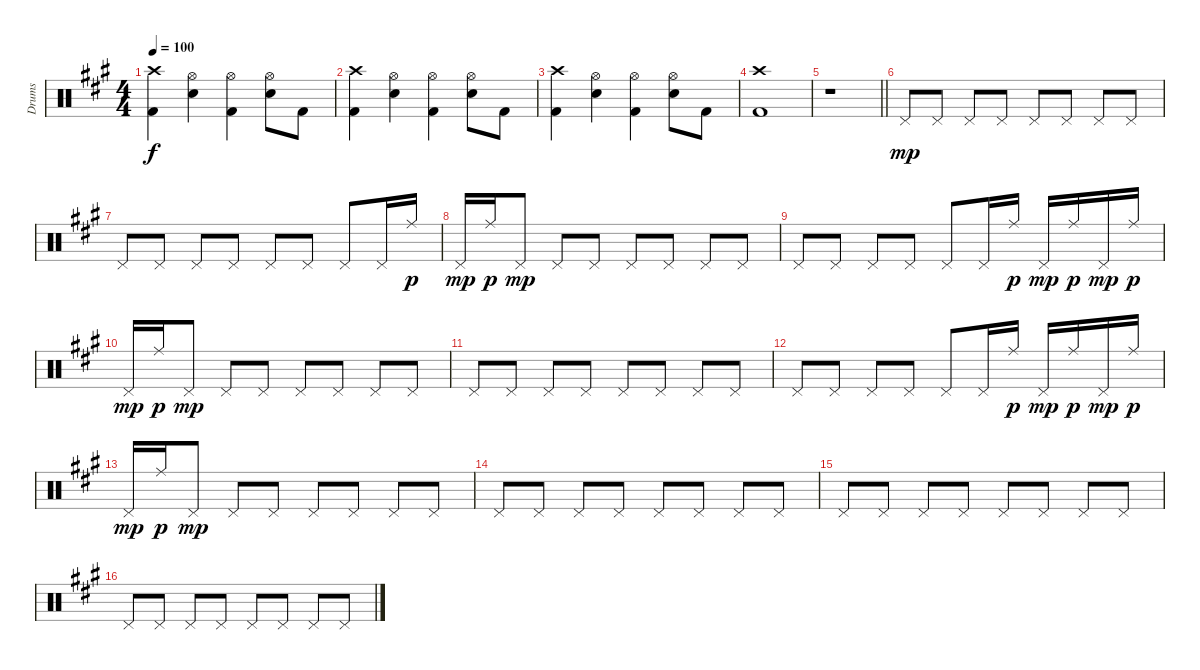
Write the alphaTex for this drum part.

\track ("Drums" "Drums") {instrument percussion}
\staff {score}
\articulation defaults
\ts (4 4)
\tempo 100
\clef neutral
\ks f#minor
("Crash high (hit)" "Kick (hit) 2").4{dy f} ("Hi-Hat (open)" "Snare (hit) 2").4 ("Hi-Hat (open)" "Kick (hit) 2").4 ("Hi-Hat (open)" "Snare (hit) 2").8 "Kick (hit) 2".8 |
("Crash high (hit)" "Kick (hit) 2").4 ("Hi-Hat (open)" "Snare (hit) 2").4 ("Hi-Hat (open)" "Kick (hit) 2").4 ("Hi-Hat (open)" "Snare (hit) 2").8 "Kick (hit) 2".8 |
("Crash high (hit)" "Kick (hit) 2").4 ("Hi-Hat (open)" "Snare (hit) 2").4 ("Hi-Hat (open)" "Kick (hit) 2").4 ("Hi-Hat (open)" "Snare (hit) 2").8 "Kick (hit) 2".8 |
("Crash high (hit)" "Kick (hit) 2").1 |
\barLineRight lightlight
r.1 |
"Pedal Hi-Hat (hit)".8{dy mp} "Pedal Hi-Hat (hit)".8 "Pedal Hi-Hat (hit)".8 "Pedal Hi-Hat (hit)".8 "Pedal Hi-Hat (hit)".8 "Pedal Hi-Hat (hit)".8 "Pedal Hi-Hat (hit)".8 "Pedal Hi-Hat (hit)".8 |
"Pedal Hi-Hat (hit)".8 "Pedal Hi-Hat (hit)".8 "Pedal Hi-Hat (hit)".8 "Pedal Hi-Hat (hit)".8 "Pedal Hi-Hat (hit)".8 "Pedal Hi-Hat (hit)".8 "Pedal Hi-Hat (hit)".8 "Pedal Hi-Hat (hit)".16 "Ride (middle)".16{dy p} |
"Pedal Hi-Hat (hit)".16{dy mp} "Ride (middle)".16{dy p} "Pedal Hi-Hat (hit)".8{dy mp} "Pedal Hi-Hat (hit)".8 "Pedal Hi-Hat (hit)".8 "Pedal Hi-Hat (hit)".8 "Pedal Hi-Hat (hit)".8 "Pedal Hi-Hat (hit)".8 "Pedal Hi-Hat (hit)".8 |
"Pedal Hi-Hat (hit)".8 "Pedal Hi-Hat (hit)".8 "Pedal Hi-Hat (hit)".8 "Pedal Hi-Hat (hit)".8 "Pedal Hi-Hat (hit)".8 "Pedal Hi-Hat (hit)".16 "Ride (middle)".16{dy p} "Pedal Hi-Hat (hit)".16{dy mp} "Ride (middle)".16{dy p} "Pedal Hi-Hat (hit)".16{dy mp} "Ride (middle)".16{dy p} |
"Pedal Hi-Hat (hit)".16{dy mp} "Ride (middle)".16{dy p} "Pedal Hi-Hat (hit)".8{dy mp} "Pedal Hi-Hat (hit)".8 "Pedal Hi-Hat (hit)".8 "Pedal Hi-Hat (hit)".8 "Pedal Hi-Hat (hit)".8 "Pedal Hi-Hat (hit)".8 "Pedal Hi-Hat (hit)".8 |
"Pedal Hi-Hat (hit)".8 "Pedal Hi-Hat (hit)".8 "Pedal Hi-Hat (hit)".8 "Pedal Hi-Hat (hit)".8 "Pedal Hi-Hat (hit)".8 "Pedal Hi-Hat (hit)".8 "Pedal Hi-Hat (hit)".8 "Pedal Hi-Hat (hit)".8 |
"Pedal Hi-Hat (hit)".8 "Pedal Hi-Hat (hit)".8 "Pedal Hi-Hat (hit)".8 "Pedal Hi-Hat (hit)".8 "Pedal Hi-Hat (hit)".8 "Pedal Hi-Hat (hit)".16 "Ride (middle)".16{dy p} "Pedal Hi-Hat (hit)".16{dy mp} "Ride (middle)".16{dy p} "Pedal Hi-Hat (hit)".16{dy mp} "Ride (middle)".16{dy p} |
"Pedal Hi-Hat (hit)".16{dy mp} "Ride (middle)".16{dy p} "Pedal Hi-Hat (hit)".8{dy mp} "Pedal Hi-Hat (hit)".8 "Pedal Hi-Hat (hit)".8 "Pedal Hi-Hat (hit)".8 "Pedal Hi-Hat (hit)".8 "Pedal Hi-Hat (hit)".8 "Pedal Hi-Hat (hit)".8 |
"Pedal Hi-Hat (hit)".8 "Pedal Hi-Hat (hit)".8 "Pedal Hi-Hat (hit)".8 "Pedal Hi-Hat (hit)".8 "Pedal Hi-Hat (hit)".8 "Pedal Hi-Hat (hit)".8 "Pedal Hi-Hat (hit)".8 "Pedal Hi-Hat (hit)".8 |
"Pedal Hi-Hat (hit)".8 "Pedal Hi-Hat (hit)".8 "Pedal Hi-Hat (hit)".8 "Pedal Hi-Hat (hit)".8 "Pedal Hi-Hat (hit)".8 "Pedal Hi-Hat (hit)".8 "Pedal Hi-Hat (hit)".8 "Pedal Hi-Hat (hit)".8 |
"Pedal Hi-Hat (hit)".8 "Pedal Hi-Hat (hit)".8 "Pedal Hi-Hat (hit)".8 "Pedal Hi-Hat (hit)".8 "Pedal Hi-Hat (hit)".8 "Pedal Hi-Hat (hit)".8 "Pedal Hi-Hat (hit)".8 "Pedal Hi-Hat (hit)".8
